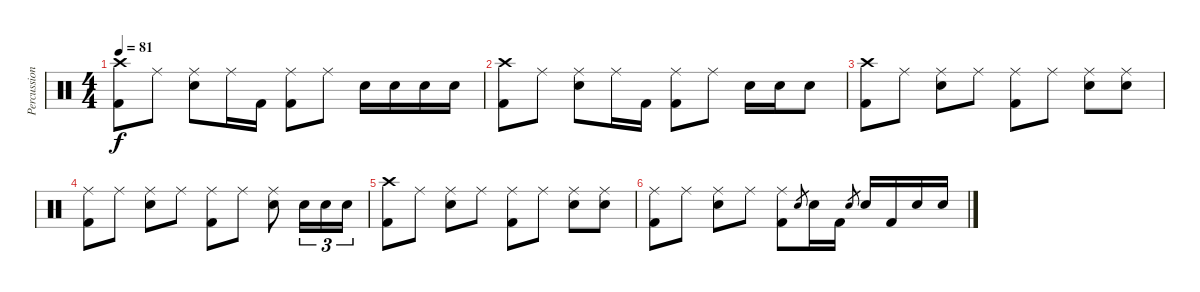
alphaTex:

\track ("Percussion" "Percussion") {instrument percussion}
\staff {score}
\articulation defaults
\ts (4 4)
\tempo 81
\clef neutral
\ks c
("Crash high (hit)" "Kick (hit) 2").8{dy f} "Ride (middle)".8 ("Ride (middle)" "Snare (hit) 2").8 "Ride (middle)".16 "Kick (hit) 2".16 ("Ride (middle)" "Kick (hit) 2").8 "Ride (middle)".8 "Snare (hit) 2".16 "Snare (hit) 2".16 "Snare (hit) 2".16 "Snare (hit) 2".16 |
("Crash high (hit)" "Kick (hit) 2").8 "Ride (middle)".8 ("Ride (middle)" "Snare (hit) 2").8 "Ride (middle)".16 "Kick (hit) 2".16 ("Ride (middle)" "Kick (hit) 2").8 "Ride (middle)".8 "Snare (hit) 2".16 "Snare (hit) 2".16 "Snare (hit) 2".8 |
("Crash high (hit)" "Kick (hit) 2").8 "Ride (middle)".8 ("Ride (middle)" "Snare (hit) 2").8 "Ride (middle)".8 ("Ride (middle)" "Kick (hit) 2").8 "Ride (middle)".8 ("Ride (middle)" "Snare (hit) 2").8 ("Ride (middle)" "Snare (hit) 2").8 |
("Ride (middle)" "Kick (hit) 2").8 "Ride (middle)".8 ("Ride (middle)" "Snare (hit) 2").8 "Ride (middle)".8 ("Ride (middle)" "Kick (hit) 2").8 "Ride (middle)".8 ("Ride (middle)" "Snare (hit) 2").8 "Snare (hit) 2".16{tu (3 2)} "Snare (hit) 2".16{tu (3 2)} "Snare (hit) 2".16{tu (3 2)} |
("Crash high (hit)" "Kick (hit) 2").8 "Ride (middle)".8 ("Ride (middle)" "Snare (hit) 2").8 "Ride (middle)".8 ("Ride (middle)" "Kick (hit) 2").8 "Ride (middle)".8 ("Ride (middle)" "Snare (hit) 2").8 ("Ride (middle)" "Snare (hit) 2").8 |
("Ride (middle)" "Kick (hit) 2").8 "Ride (middle)".8 ("Ride (middle)" "Snare (hit) 2").8 "Ride (middle)".8 ("Ride (middle)" "Kick (hit) 2").8 "Snare (hit) 2".8{gr} "Snare (hit) 2".16 "Kick (hit) 2".16 "Snare (hit) 2".8{gr} "Snare (hit) 2".16 "Kick (hit) 2".16 "Snare (hit) 2".16 "Snare (hit) 2".16
